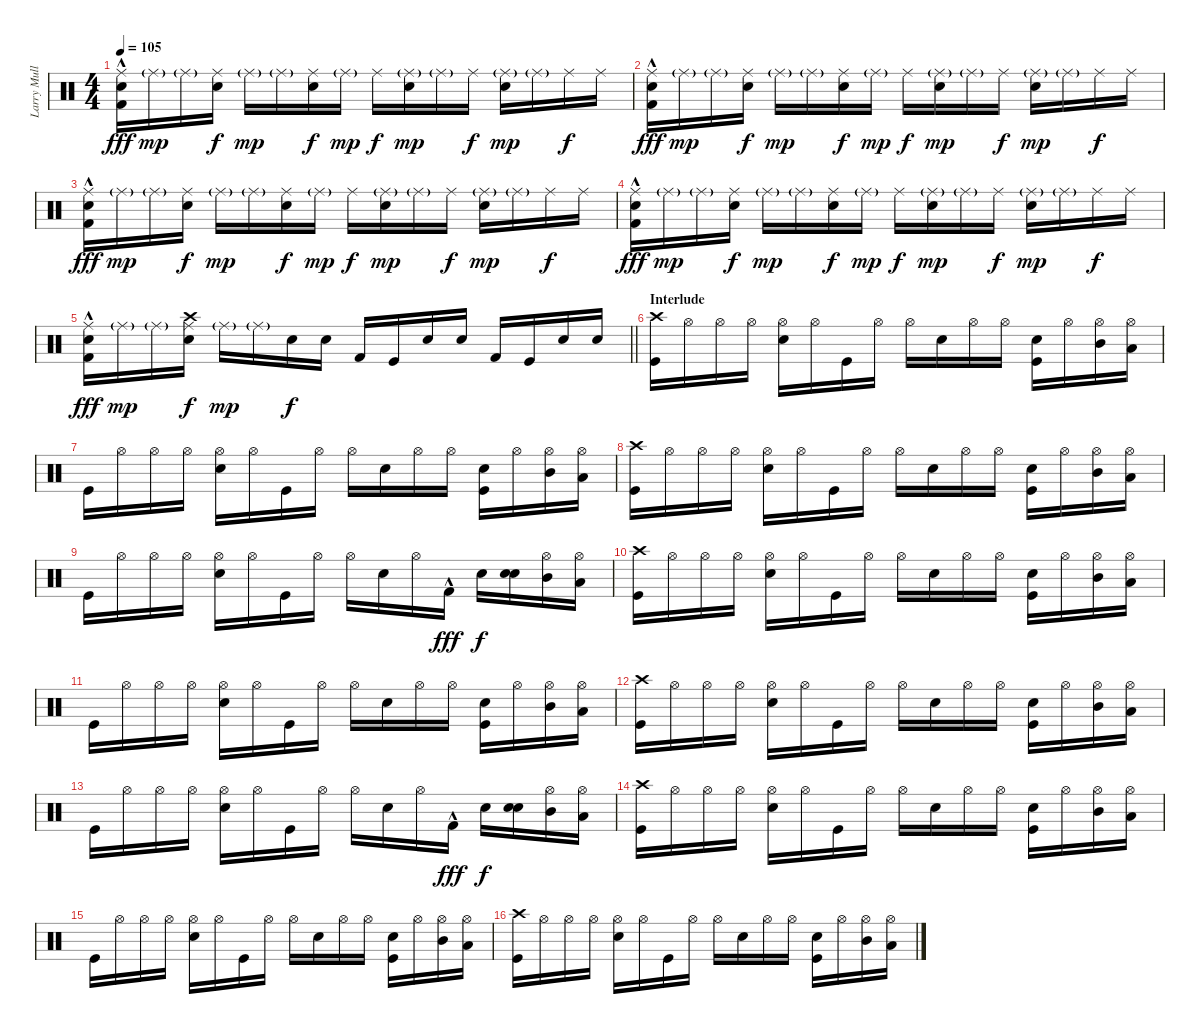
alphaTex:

\track ("Larry Mullen Jr." "Larry Mull") {instrument percussion}
\staff {score}
\articulation defaults
\ts (4 4)
\tempo 105
\clef neutral
\ks c
("Ride (middle)" "Electric Snare (hit)" "Kick (hit) 2"{hac}).16{dy fff} "Ride (middle)"{g}.16{dy mp} "Ride (middle)"{g}.16 ("Ride (middle)" "Electric Snare (hit)").16{dy f} "Ride (middle)"{g}.16{dy mp} "Ride (middle)"{g}.16 ("Ride (middle)" "Electric Snare (hit)").16{dy f} "Ride (middle)"{g}.16{dy mp} "Ride (middle)".16{dy f} ("Ride (middle)"{g} "Electric Snare (hit)").16{dy mp} "Ride (middle)"{g}.16 "Ride (middle)".16{dy f} ("Ride (middle)"{g} "Electric Snare (hit)").16{dy mp} "Ride (middle)"{g}.16 "Ride (middle)".16{dy f} "Ride (middle)".16 |
("Ride (middle)" "Electric Snare (hit)" "Kick (hit) 2"{hac}).16{dy fff} "Ride (middle)"{g}.16{dy mp} "Ride (middle)"{g}.16 ("Ride (middle)" "Electric Snare (hit)").16{dy f} "Ride (middle)"{g}.16{dy mp} "Ride (middle)"{g}.16 ("Ride (middle)" "Electric Snare (hit)").16{dy f} "Ride (middle)"{g}.16{dy mp} "Ride (middle)".16{dy f} ("Ride (middle)"{g} "Electric Snare (hit)").16{dy mp} "Ride (middle)"{g}.16 "Ride (middle)".16{dy f} ("Ride (middle)"{g} "Electric Snare (hit)").16{dy mp} "Ride (middle)"{g}.16 "Ride (middle)".16{dy f} "Ride (middle)".16 |
("Ride (middle)" "Electric Snare (hit)" "Kick (hit) 2"{hac}).16{dy fff} "Ride (middle)"{g}.16{dy mp} "Ride (middle)"{g}.16 ("Ride (middle)" "Electric Snare (hit)").16{dy f} "Ride (middle)"{g}.16{dy mp} "Ride (middle)"{g}.16 ("Ride (middle)" "Electric Snare (hit)").16{dy f} "Ride (middle)"{g}.16{dy mp} "Ride (middle)".16{dy f} ("Ride (middle)"{g} "Electric Snare (hit)").16{dy mp} "Ride (middle)"{g}.16 "Ride (middle)".16{dy f} ("Ride (middle)"{g} "Electric Snare (hit)").16{dy mp} "Ride (middle)"{g}.16 "Ride (middle)".16{dy f} "Ride (middle)".16 |
("Ride (middle)" "Electric Snare (hit)" "Kick (hit) 2"{hac}).16{dy fff} "Ride (middle)"{g}.16{dy mp} "Ride (middle)"{g}.16 ("Ride (middle)" "Electric Snare (hit)").16{dy f} "Ride (middle)"{g}.16{dy mp} "Ride (middle)"{g}.16 ("Ride (middle)" "Electric Snare (hit)").16{dy f} "Ride (middle)"{g}.16{dy mp} "Ride (middle)".16{dy f} ("Ride (middle)"{g} "Electric Snare (hit)").16{dy mp} "Ride (middle)"{g}.16 "Ride (middle)".16{dy f} ("Ride (middle)"{g} "Electric Snare (hit)").16{dy mp} "Ride (middle)"{g}.16 "Ride (middle)".16{dy f} "Ride (middle)".16 |
\barLineRight lightlight
("Ride (middle)" "Electric Snare (hit)" "Kick (hit) 2"{hac}).16{dy fff} "Ride (middle)"{g}.16{dy mp} "Ride (middle)"{g}.16 ("Crash high (hit)" "Ride (middle)" "Electric Snare (hit)").16{dy f} "Ride (middle)"{g}.16{dy mp} "Ride (middle)"{g}.16 "Electric Snare (hit)".16{dy f} "Electric Snare (hit)".16 "Kick (hit) 2".16 "Kick (hit)".16 "Electric Snare (hit)".16 "Electric Snare (hit)".16 "Kick (hit) 2".16 "Kick (hit)".16 "Electric Snare (hit)".16 "Electric Snare (hit)".16 |
\section ("" "Interlude")
("Crash high (hit)" "Kick (hit)").16 "Hi-Hat (open)".16 "Hi-Hat (open)".16 "Hi-Hat (open)".16 ("Hi-Hat (open)" "Snare (hit) 2").16 "Hi-Hat (open)".16 "Kick (hit)".16 "Hi-Hat (open)".16 "Hi-Hat (open)".16 "Electric Snare (hit)".16 "Hi-Hat (open)".16 "Hi-Hat (open)".16 ("Snare (hit) 2" "Kick (hit)").16 "Hi-Hat (open)".16 ("Hi-Hat (open)" "Mid Tom (hit)").16 ("Hi-Hat (open)" "Low Tom (hit)").16 |
"Kick (hit)".16 "Hi-Hat (open)".16 "Hi-Hat (open)".16 "Hi-Hat (open)".16 ("Hi-Hat (open)" "Snare (hit) 2").16 "Hi-Hat (open)".16 "Kick (hit)".16 "Hi-Hat (open)".16 "Hi-Hat (open)".16 "Electric Snare (hit)".16 "Hi-Hat (open)".16 "Hi-Hat (open)".16 ("Snare (hit) 2" "Kick (hit)").16 "Hi-Hat (open)".16 ("Hi-Hat (open)" "Mid Tom (hit)").16 ("Hi-Hat (open)" "Low Tom (hit)").16 |
("Crash high (hit)" "Kick (hit)").16 "Hi-Hat (open)".16 "Hi-Hat (open)".16 "Hi-Hat (open)".16 ("Hi-Hat (open)" "Snare (hit) 2").16 "Hi-Hat (open)".16 "Kick (hit)".16 "Hi-Hat (open)".16 "Hi-Hat (open)".16 "Electric Snare (hit)".16 "Hi-Hat (open)".16 "Hi-Hat (open)".16 ("Snare (hit) 2" "Kick (hit)").16 "Hi-Hat (open)".16 ("Hi-Hat (open)" "Mid Tom (hit)").16 ("Hi-Hat (open)" "Low Tom (hit)").16 |
"Kick (hit)".16 "Hi-Hat (open)".16 "Hi-Hat (open)".16 "Hi-Hat (open)".16 ("Hi-Hat (open)" "Snare (hit) 2").16 "Hi-Hat (open)".16 "Kick (hit)".16 "Hi-Hat (open)".16 "Hi-Hat (open)".16 "Electric Snare (hit)".16 "Hi-Hat (open)".16 "Kick (hit) 2"{hac}.16{dy fff} "Snare (hit) 2".16{dy f} ("Snare (hit) 2" "Electric Snare (hit)").16 ("Hi-Hat (open)" "Mid Tom (hit)").16 ("Hi-Hat (open)" "Low Tom (hit)").16 |
("Crash high (hit)" "Kick (hit)").16 "Hi-Hat (open)".16 "Hi-Hat (open)".16 "Hi-Hat (open)".16 ("Hi-Hat (open)" "Snare (hit) 2").16 "Hi-Hat (open)".16 "Kick (hit)".16 "Hi-Hat (open)".16 "Hi-Hat (open)".16 "Electric Snare (hit)".16 "Hi-Hat (open)".16 "Hi-Hat (open)".16 ("Snare (hit) 2" "Kick (hit)").16 "Hi-Hat (open)".16 ("Hi-Hat (open)" "Mid Tom (hit)").16 ("Hi-Hat (open)" "Low Tom (hit)").16 |
"Kick (hit)".16 "Hi-Hat (open)".16 "Hi-Hat (open)".16 "Hi-Hat (open)".16 ("Hi-Hat (open)" "Snare (hit) 2").16 "Hi-Hat (open)".16 "Kick (hit)".16 "Hi-Hat (open)".16 "Hi-Hat (open)".16 "Electric Snare (hit)".16 "Hi-Hat (open)".16 "Hi-Hat (open)".16 ("Snare (hit) 2" "Kick (hit)").16 "Hi-Hat (open)".16 ("Hi-Hat (open)" "Mid Tom (hit)").16 ("Hi-Hat (open)" "Low Tom (hit)").16 |
("Crash high (hit)" "Kick (hit)").16 "Hi-Hat (open)".16 "Hi-Hat (open)".16 "Hi-Hat (open)".16 ("Hi-Hat (open)" "Snare (hit) 2").16 "Hi-Hat (open)".16 "Kick (hit)".16 "Hi-Hat (open)".16 "Hi-Hat (open)".16 "Electric Snare (hit)".16 "Hi-Hat (open)".16 "Hi-Hat (open)".16 ("Snare (hit) 2" "Kick (hit)").16 "Hi-Hat (open)".16 ("Hi-Hat (open)" "Mid Tom (hit)").16 ("Hi-Hat (open)" "Low Tom (hit)").16 |
"Kick (hit)".16 "Hi-Hat (open)".16 "Hi-Hat (open)".16 "Hi-Hat (open)".16 ("Hi-Hat (open)" "Snare (hit) 2").16 "Hi-Hat (open)".16 "Kick (hit)".16 "Hi-Hat (open)".16 "Hi-Hat (open)".16 "Electric Snare (hit)".16 "Hi-Hat (open)".16 "Kick (hit) 2"{hac}.16{dy fff} "Snare (hit) 2".16{dy f} ("Snare (hit) 2" "Electric Snare (hit)").16 ("Hi-Hat (open)" "Mid Tom (hit)").16 ("Hi-Hat (open)" "Low Tom (hit)").16 |
("Crash high (hit)" "Kick (hit)").16 "Hi-Hat (open)".16 "Hi-Hat (open)".16 "Hi-Hat (open)".16 ("Hi-Hat (open)" "Snare (hit) 2").16 "Hi-Hat (open)".16 "Kick (hit)".16 "Hi-Hat (open)".16 "Hi-Hat (open)".16 "Electric Snare (hit)".16 "Hi-Hat (open)".16 "Hi-Hat (open)".16 ("Snare (hit) 2" "Kick (hit)").16 "Hi-Hat (open)".16 ("Hi-Hat (open)" "Mid Tom (hit)").16 ("Hi-Hat (open)" "Low Tom (hit)").16 |
"Kick (hit)".16 "Hi-Hat (open)".16 "Hi-Hat (open)".16 "Hi-Hat (open)".16 ("Hi-Hat (open)" "Snare (hit) 2").16 "Hi-Hat (open)".16 "Kick (hit)".16 "Hi-Hat (open)".16 "Hi-Hat (open)".16 "Electric Snare (hit)".16 "Hi-Hat (open)".16 "Hi-Hat (open)".16 ("Snare (hit) 2" "Kick (hit)").16 "Hi-Hat (open)".16 ("Hi-Hat (open)" "Mid Tom (hit)").16 ("Hi-Hat (open)" "Low Tom (hit)").16 |
("Crash high (hit)" "Kick (hit)").16 "Hi-Hat (open)".16 "Hi-Hat (open)".16 "Hi-Hat (open)".16 ("Hi-Hat (open)" "Snare (hit) 2").16 "Hi-Hat (open)".16 "Kick (hit)".16 "Hi-Hat (open)".16 "Hi-Hat (open)".16 "Electric Snare (hit)".16 "Hi-Hat (open)".16 "Hi-Hat (open)".16 ("Snare (hit) 2" "Kick (hit)").16 "Hi-Hat (open)".16 ("Hi-Hat (open)" "Mid Tom (hit)").16 ("Hi-Hat (open)" "Low Tom (hit)").16
